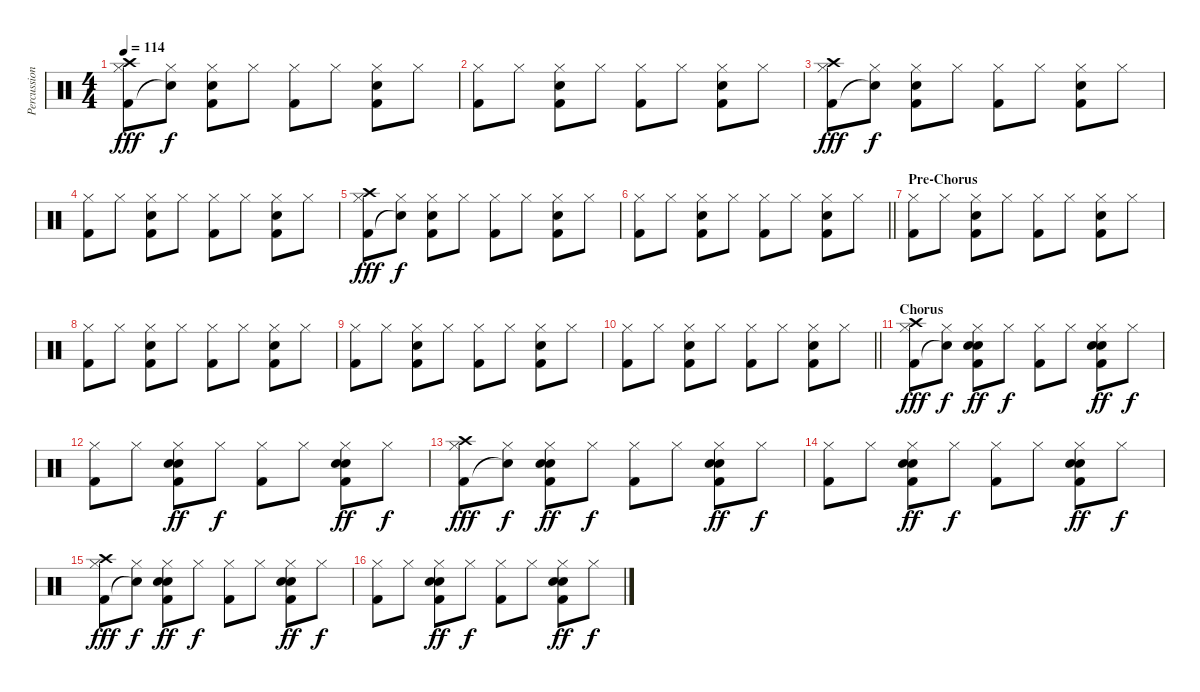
\track ("Percussion" "Percussion") {instrument percussion}
\staff {score}
\articulation defaults
\ts (4 4)
\tempo 114
\clef neutral
\ks c
("Hi-Hat (closed)" "Kick (hit) 2" "Crash high (hit)").8{dy fff} ("Hi-Hat (closed)" "Snare (hit)"{t}).8{dy f} ("Hi-Hat (closed)" "Snare (hit) 2" "Kick (hit) 2").8 "Hi-Hat (closed)".8 ("Hi-Hat (closed)" "Kick (hit) 2").8 "Hi-Hat (closed)".8 ("Hi-Hat (closed)" "Snare (hit) 2" "Kick (hit) 2").8 "Hi-Hat (closed)".8 |
("Hi-Hat (closed)" "Kick (hit) 2").8 "Hi-Hat (closed)".8 ("Hi-Hat (closed)" "Snare (hit) 2" "Kick (hit) 2").8 "Hi-Hat (closed)".8 ("Hi-Hat (closed)" "Kick (hit) 2").8 "Hi-Hat (closed)".8 ("Hi-Hat (closed)" "Snare (hit) 2" "Kick (hit) 2").8 "Hi-Hat (closed)".8 |
("Hi-Hat (closed)" "Kick (hit) 2" "Crash high (hit)").8{dy fff} ("Hi-Hat (closed)" "Snare (hit)"{t}).8{dy f} ("Hi-Hat (closed)" "Snare (hit) 2" "Kick (hit) 2").8 "Hi-Hat (closed)".8 ("Hi-Hat (closed)" "Kick (hit) 2").8 "Hi-Hat (closed)".8 ("Hi-Hat (closed)" "Snare (hit) 2" "Kick (hit) 2").8 "Hi-Hat (closed)".8 |
("Hi-Hat (closed)" "Kick (hit) 2").8 "Hi-Hat (closed)".8 ("Hi-Hat (closed)" "Snare (hit) 2" "Kick (hit) 2").8 "Hi-Hat (closed)".8 ("Hi-Hat (closed)" "Kick (hit) 2").8 "Hi-Hat (closed)".8 ("Hi-Hat (closed)" "Snare (hit) 2" "Kick (hit) 2").8 "Hi-Hat (closed)".8 |
("Hi-Hat (closed)" "Kick (hit) 2" "Crash high (hit)").8{dy fff} ("Hi-Hat (closed)" "Snare (hit)"{t}).8{dy f} ("Hi-Hat (closed)" "Snare (hit) 2" "Kick (hit) 2").8 "Hi-Hat (closed)".8 ("Hi-Hat (closed)" "Kick (hit) 2").8 "Hi-Hat (closed)".8 ("Hi-Hat (closed)" "Snare (hit) 2" "Kick (hit) 2").8 "Hi-Hat (closed)".8 |
\barLineRight lightlight
("Hi-Hat (closed)" "Kick (hit) 2").8 "Hi-Hat (closed)".8 ("Hi-Hat (closed)" "Snare (hit) 2" "Kick (hit) 2").8 "Hi-Hat (closed)".8 ("Hi-Hat (closed)" "Kick (hit) 2").8 "Hi-Hat (closed)".8 ("Hi-Hat (closed)" "Snare (hit) 2" "Kick (hit) 2").8 "Hi-Hat (closed)".8 |
\section ("" "Pre-Chorus")
("Hi-Hat (closed)" "Kick (hit) 2").8 "Hi-Hat (closed)".8 ("Hi-Hat (closed)" "Snare (hit) 2" "Kick (hit) 2").8 "Hi-Hat (closed)".8 ("Hi-Hat (closed)" "Kick (hit) 2").8 "Hi-Hat (closed)".8 ("Hi-Hat (closed)" "Snare (hit) 2" "Kick (hit) 2").8 "Hi-Hat (closed)".8 |
("Hi-Hat (closed)" "Kick (hit) 2").8 "Hi-Hat (closed)".8 ("Hi-Hat (closed)" "Snare (hit) 2" "Kick (hit) 2").8 "Hi-Hat (closed)".8 ("Hi-Hat (closed)" "Kick (hit) 2").8 "Hi-Hat (closed)".8 ("Hi-Hat (closed)" "Snare (hit) 2" "Kick (hit) 2").8 "Hi-Hat (closed)".8 |
("Hi-Hat (closed)" "Kick (hit) 2").8 "Hi-Hat (closed)".8 ("Hi-Hat (closed)" "Snare (hit) 2" "Kick (hit) 2").8 "Hi-Hat (closed)".8 ("Hi-Hat (closed)" "Kick (hit) 2").8 "Hi-Hat (closed)".8 ("Hi-Hat (closed)" "Snare (hit) 2" "Kick (hit) 2").8 "Hi-Hat (closed)".8 |
\barLineRight lightlight
("Hi-Hat (closed)" "Kick (hit) 2").8 "Hi-Hat (closed)".8 ("Hi-Hat (closed)" "Snare (hit) 2" "Kick (hit) 2").8 "Hi-Hat (closed)".8 ("Hi-Hat (closed)" "Kick (hit) 2").8 "Hi-Hat (closed)".8 ("Hi-Hat (closed)" "Snare (hit) 2" "Kick (hit) 2").8 "Hi-Hat (closed)".8 |
\section ("" "Chorus")
("Hi-Hat (closed)" "Kick (hit) 2" "Crash high (hit)").8{dy fff} ("Hi-Hat (closed)" "Snare (hit)"{t}).8{dy f} ("Hand Clap (hit)" "Hi-Hat (closed)" "Snare (hit) 2" "Kick (hit) 2").8{dy ff} "Hi-Hat (closed)".8{dy f} ("Hi-Hat (closed)" "Kick (hit) 2").8 "Hi-Hat (closed)".8 ("Hand Clap (hit)" "Hi-Hat (closed)" "Snare (hit) 2" "Kick (hit) 2").8{dy ff} "Hi-Hat (closed)".8{dy f} |
("Hi-Hat (closed)" "Kick (hit) 2").8 "Hi-Hat (closed)".8 ("Hand Clap (hit)" "Hi-Hat (closed)" "Snare (hit) 2" "Kick (hit) 2").8{dy ff} "Hi-Hat (closed)".8{dy f} ("Hi-Hat (closed)" "Kick (hit) 2").8 "Hi-Hat (closed)".8 ("Hand Clap (hit)" "Hi-Hat (closed)" "Snare (hit) 2" "Kick (hit) 2").8{dy ff} "Hi-Hat (closed)".8{dy f} |
("Hi-Hat (closed)" "Kick (hit) 2" "Crash high (hit)").8{dy fff} ("Hi-Hat (closed)" "Snare (hit)"{t}).8{dy f} ("Hand Clap (hit)" "Hi-Hat (closed)" "Snare (hit) 2" "Kick (hit) 2").8{dy ff} "Hi-Hat (closed)".8{dy f} ("Hi-Hat (closed)" "Kick (hit) 2").8 "Hi-Hat (closed)".8 ("Hand Clap (hit)" "Hi-Hat (closed)" "Snare (hit) 2" "Kick (hit) 2").8{dy ff} "Hi-Hat (closed)".8{dy f} |
("Hi-Hat (closed)" "Kick (hit) 2").8 "Hi-Hat (closed)".8 ("Hand Clap (hit)" "Hi-Hat (closed)" "Snare (hit) 2" "Kick (hit) 2").8{dy ff} "Hi-Hat (closed)".8{dy f} ("Hi-Hat (closed)" "Kick (hit) 2").8 "Hi-Hat (closed)".8 ("Hand Clap (hit)" "Hi-Hat (closed)" "Snare (hit) 2" "Kick (hit) 2").8{dy ff} "Hi-Hat (closed)".8{dy f} |
("Hi-Hat (closed)" "Kick (hit) 2" "Crash high (hit)").8{dy fff} ("Hi-Hat (closed)" "Snare (hit)"{t}).8{dy f} ("Hand Clap (hit)" "Hi-Hat (closed)" "Snare (hit) 2" "Kick (hit) 2").8{dy ff} "Hi-Hat (closed)".8{dy f} ("Hi-Hat (closed)" "Kick (hit) 2").8 "Hi-Hat (closed)".8 ("Hand Clap (hit)" "Hi-Hat (closed)" "Snare (hit) 2" "Kick (hit) 2").8{dy ff} "Hi-Hat (closed)".8{dy f} |
("Hi-Hat (closed)" "Kick (hit) 2").8 "Hi-Hat (closed)".8 ("Hand Clap (hit)" "Hi-Hat (closed)" "Snare (hit) 2" "Kick (hit) 2").8{dy ff} "Hi-Hat (closed)".8{dy f} ("Hi-Hat (closed)" "Kick (hit) 2").8 "Hi-Hat (closed)".8 ("Hand Clap (hit)" "Hi-Hat (closed)" "Snare (hit) 2" "Kick (hit) 2").8{dy ff} "Hi-Hat (closed)".8{dy f}
